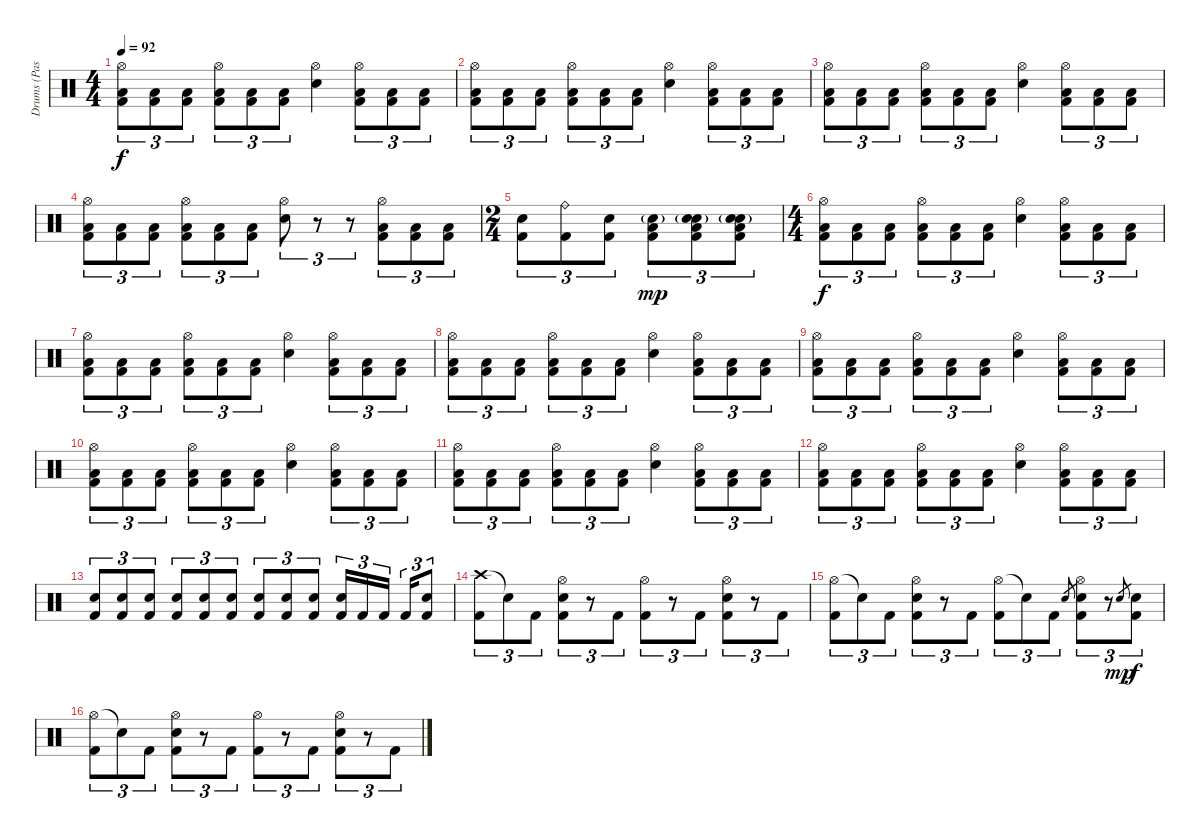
\track ("Drums (Pasanen)" "Drums (Pas") {instrument percussion}
\staff {score}
\articulation defaults
\ts (4 4)
\tempo 92
\clef neutral
\ks c
("Hi-Hat (open)" "Low Tom (hit)" "Kick (hit) 2").8{tu (3 2) dy f} ("Low Tom (hit)" "Kick (hit) 2").8{tu (3 2)} ("Low Tom (hit)" "Kick (hit) 2").8{tu (3 2)} ("Hi-Hat (open)" "Low Tom (hit)" "Kick (hit) 2").8{tu (3 2)} ("Low Tom (hit)" "Kick (hit) 2").8{tu (3 2)} ("Low Tom (hit)" "Kick (hit) 2").8{tu (3 2)} ("Hi-Hat (open)" "Electric Snare (hit)").4 ("Hi-Hat (open)" "Low Tom (hit)" "Kick (hit) 2").8{tu (3 2)} ("Low Tom (hit)" "Kick (hit) 2").8{tu (3 2)} ("Low Tom (hit)" "Kick (hit) 2").8{tu (3 2)} |
("Hi-Hat (open)" "Low Tom (hit)" "Kick (hit) 2").8{tu (3 2)} ("Low Tom (hit)" "Kick (hit) 2").8{tu (3 2)} ("Low Tom (hit)" "Kick (hit) 2").8{tu (3 2)} ("Hi-Hat (open)" "Low Tom (hit)" "Kick (hit) 2").8{tu (3 2)} ("Low Tom (hit)" "Kick (hit) 2").8{tu (3 2)} ("Low Tom (hit)" "Kick (hit) 2").8{tu (3 2)} ("Hi-Hat (open)" "Electric Snare (hit)").4 ("Hi-Hat (open)" "Low Tom (hit)" "Kick (hit) 2").8{tu (3 2)} ("Low Tom (hit)" "Kick (hit) 2").8{tu (3 2)} ("Low Tom (hit)" "Kick (hit) 2").8{tu (3 2)} |
("Hi-Hat (open)" "Low Tom (hit)" "Kick (hit) 2").8{tu (3 2)} ("Low Tom (hit)" "Kick (hit) 2").8{tu (3 2)} ("Low Tom (hit)" "Kick (hit) 2").8{tu (3 2)} ("Hi-Hat (open)" "Low Tom (hit)" "Kick (hit) 2").8{tu (3 2)} ("Low Tom (hit)" "Kick (hit) 2").8{tu (3 2)} ("Low Tom (hit)" "Kick (hit) 2").8{tu (3 2)} ("Hi-Hat (open)" "Electric Snare (hit)").4 ("Hi-Hat (open)" "Low Tom (hit)" "Kick (hit) 2").8{tu (3 2)} ("Low Tom (hit)" "Kick (hit) 2").8{tu (3 2)} ("Low Tom (hit)" "Kick (hit) 2").8{tu (3 2)} |
("Hi-Hat (open)" "Low Tom (hit)" "Kick (hit) 2").8{tu (3 2)} ("Low Tom (hit)" "Kick (hit) 2").8{tu (3 2)} ("Low Tom (hit)" "Kick (hit) 2").8{tu (3 2)} ("Hi-Hat (open)" "Low Tom (hit)" "Kick (hit) 2").8{tu (3 2)} ("Low Tom (hit)" "Kick (hit) 2").8{tu (3 2)} ("Low Tom (hit)" "Kick (hit) 2").8{tu (3 2)} ("Hi-Hat (open)" "Electric Snare (hit)").8{tu (3 2)} r.8{tu (3 2)} r.8{tu (3 2)} ("Hi-Hat (open)" "Low Tom (hit)" "Kick (hit) 2").8{tu (3 2)} ("Low Tom (hit)" "Kick (hit) 2").8{tu (3 2)} ("Low Tom (hit)" "Kick (hit) 2").8{tu (3 2)} |
\ts (2 4)
("Electric Snare (hit)" "Kick (hit) 2").8{tu (3 2)} ("Ride (bell)" "Kick (hit) 2").8{tu (3 2)} ("Electric Snare (hit)" "Kick (hit) 2").8{tu (3 2)} ("Low Tom (hit)" "Electric Snare (hit)"{g} "Kick (hit) 2").8{tu (3 2) dy mp} ("Electric Snare (hit)" "Low Tom (hit)" "Electric Snare (hit)"{g} "Kick (hit) 2").8{tu (3 2)} ("Electric Snare (hit)" "Low Tom (hit)" "Electric Snare (hit)"{g} "Kick (hit) 2").8{tu (3 2)} |
\ts (4 4)
("Hi-Hat (open)" "Low Tom (hit)" "Kick (hit) 2").8{tu (3 2) dy f} ("Low Tom (hit)" "Kick (hit) 2").8{tu (3 2)} ("Low Tom (hit)" "Kick (hit) 2").8{tu (3 2)} ("Hi-Hat (open)" "Low Tom (hit)" "Kick (hit) 2").8{tu (3 2)} ("Low Tom (hit)" "Kick (hit) 2").8{tu (3 2)} ("Low Tom (hit)" "Kick (hit) 2").8{tu (3 2)} ("Hi-Hat (open)" "Electric Snare (hit)").4 ("Hi-Hat (open)" "Low Tom (hit)" "Kick (hit) 2").8{tu (3 2)} ("Low Tom (hit)" "Kick (hit) 2").8{tu (3 2)} ("Low Tom (hit)" "Kick (hit) 2").8{tu (3 2)} |
("Hi-Hat (open)" "Low Tom (hit)" "Kick (hit) 2").8{tu (3 2)} ("Low Tom (hit)" "Kick (hit) 2").8{tu (3 2)} ("Low Tom (hit)" "Kick (hit) 2").8{tu (3 2)} ("Hi-Hat (open)" "Low Tom (hit)" "Kick (hit) 2").8{tu (3 2)} ("Low Tom (hit)" "Kick (hit) 2").8{tu (3 2)} ("Low Tom (hit)" "Kick (hit) 2").8{tu (3 2)} ("Hi-Hat (open)" "Electric Snare (hit)").4 ("Hi-Hat (open)" "Low Tom (hit)" "Kick (hit) 2").8{tu (3 2)} ("Low Tom (hit)" "Kick (hit) 2").8{tu (3 2)} ("Low Tom (hit)" "Kick (hit) 2").8{tu (3 2)} |
("Hi-Hat (open)" "Low Tom (hit)" "Kick (hit) 2").8{tu (3 2)} ("Low Tom (hit)" "Kick (hit) 2").8{tu (3 2)} ("Low Tom (hit)" "Kick (hit) 2").8{tu (3 2)} ("Hi-Hat (open)" "Low Tom (hit)" "Kick (hit) 2").8{tu (3 2)} ("Low Tom (hit)" "Kick (hit) 2").8{tu (3 2)} ("Low Tom (hit)" "Kick (hit) 2").8{tu (3 2)} ("Hi-Hat (open)" "Electric Snare (hit)").4 ("Hi-Hat (open)" "Low Tom (hit)" "Kick (hit) 2").8{tu (3 2)} ("Low Tom (hit)" "Kick (hit) 2").8{tu (3 2)} ("Low Tom (hit)" "Kick (hit) 2").8{tu (3 2)} |
("Hi-Hat (open)" "Low Tom (hit)" "Kick (hit) 2").8{tu (3 2)} ("Low Tom (hit)" "Kick (hit) 2").8{tu (3 2)} ("Low Tom (hit)" "Kick (hit) 2").8{tu (3 2)} ("Hi-Hat (open)" "Low Tom (hit)" "Kick (hit) 2").8{tu (3 2)} ("Low Tom (hit)" "Kick (hit) 2").8{tu (3 2)} ("Low Tom (hit)" "Kick (hit) 2").8{tu (3 2)} ("Hi-Hat (open)" "Electric Snare (hit)").4 ("Hi-Hat (open)" "Low Tom (hit)" "Kick (hit) 2").8{tu (3 2)} ("Low Tom (hit)" "Kick (hit) 2").8{tu (3 2)} ("Low Tom (hit)" "Kick (hit) 2").8{tu (3 2)} |
("Hi-Hat (open)" "Low Tom (hit)" "Kick (hit) 2").8{tu (3 2)} ("Low Tom (hit)" "Kick (hit) 2").8{tu (3 2)} ("Low Tom (hit)" "Kick (hit) 2").8{tu (3 2)} ("Hi-Hat (open)" "Low Tom (hit)" "Kick (hit) 2").8{tu (3 2)} ("Low Tom (hit)" "Kick (hit) 2").8{tu (3 2)} ("Low Tom (hit)" "Kick (hit) 2").8{tu (3 2)} ("Hi-Hat (open)" "Electric Snare (hit)").4 ("Hi-Hat (open)" "Low Tom (hit)" "Kick (hit) 2").8{tu (3 2)} ("Low Tom (hit)" "Kick (hit) 2").8{tu (3 2)} ("Low Tom (hit)" "Kick (hit) 2").8{tu (3 2)} |
("Hi-Hat (open)" "Low Tom (hit)" "Kick (hit) 2").8{tu (3 2)} ("Low Tom (hit)" "Kick (hit) 2").8{tu (3 2)} ("Low Tom (hit)" "Kick (hit) 2").8{tu (3 2)} ("Hi-Hat (open)" "Low Tom (hit)" "Kick (hit) 2").8{tu (3 2)} ("Low Tom (hit)" "Kick (hit) 2").8{tu (3 2)} ("Low Tom (hit)" "Kick (hit) 2").8{tu (3 2)} ("Hi-Hat (open)" "Electric Snare (hit)").4 ("Hi-Hat (open)" "Low Tom (hit)" "Kick (hit) 2").8{tu (3 2)} ("Low Tom (hit)" "Kick (hit) 2").8{tu (3 2)} ("Low Tom (hit)" "Kick (hit) 2").8{tu (3 2)} |
("Hi-Hat (open)" "Low Tom (hit)" "Kick (hit) 2").8{tu (3 2)} ("Low Tom (hit)" "Kick (hit) 2").8{tu (3 2)} ("Low Tom (hit)" "Kick (hit) 2").8{tu (3 2)} ("Hi-Hat (open)" "Low Tom (hit)" "Kick (hit) 2").8{tu (3 2)} ("Low Tom (hit)" "Kick (hit) 2").8{tu (3 2)} ("Low Tom (hit)" "Kick (hit) 2").8{tu (3 2)} ("Hi-Hat (open)" "Electric Snare (hit)").4 ("Hi-Hat (open)" "Low Tom (hit)" "Kick (hit) 2").8{tu (3 2)} ("Low Tom (hit)" "Kick (hit) 2").8{tu (3 2)} ("Low Tom (hit)" "Kick (hit) 2").8{tu (3 2)} |
("Electric Snare (hit)" "Kick (hit) 2").8{tu (3 2)} ("Electric Snare (hit)" "Kick (hit) 2").8{tu (3 2)} ("Electric Snare (hit)" "Kick (hit) 2").8{tu (3 2)} ("Electric Snare (hit)" "Kick (hit) 2").8{tu (3 2)} ("Electric Snare (hit)" "Kick (hit) 2").8{tu (3 2)} ("Electric Snare (hit)" "Kick (hit) 2").8{tu (3 2)} ("Electric Snare (hit)" "Kick (hit) 2").8{tu (3 2)} ("Electric Snare (hit)" "Kick (hit) 2").8{tu (3 2)} ("Electric Snare (hit)" "Kick (hit) 2").8{tu (3 2)} ("Electric Snare (hit)" "Kick (hit) 2").16{tu (3 2)} "Kick (hit) 2".16{tu (3 2)} "Kick (hit) 2".16{tu (3 2) beam splitsecondary} "Kick (hit) 2".16{tu (3 2)} ("Electric Snare (hit)" "Kick (hit) 2").8{tu (3 2)} |
("Crash high (hit)" "Kick (hit) 2").8{tu (3 2)} "Snare (hit)"{t}.8{tu (3 2)} "Kick (hit) 2".8{tu (3 2)} ("Hi-Hat (open)" "Electric Snare (hit)" "Kick (hit) 2").8{tu (3 2)} r.8{tu (3 2)} "Kick (hit) 2".8{tu (3 2)} ("Hi-Hat (open)" "Kick (hit) 2").8{tu (3 2)} r.8{tu (3 2)} "Kick (hit) 2".8{tu (3 2)} ("Hi-Hat (open)" "Electric Snare (hit)" "Kick (hit) 2").8{tu (3 2)} r.8{tu (3 2)} "Kick (hit) 2".8{tu (3 2)} |
("Hi-Hat (open)" "Kick (hit) 2").8{tu (3 2)} "Snare (hit)"{t}.8{tu (3 2)} "Kick (hit) 2".8{tu (3 2)} ("Hi-Hat (open)" "Electric Snare (hit)" "Kick (hit) 2").8{tu (3 2)} r.8{tu (3 2)} "Kick (hit) 2".8{tu (3 2)} ("Hi-Hat (open)" "Kick (hit) 2").8{tu (3 2)} "Snare (hit)"{t}.8{tu (3 2)} "Kick (hit) 2".8{tu (3 2)} "Electric Snare (hit)".8{gr} ("Hi-Hat (open)" "Electric Snare (hit)" "Kick (hit) 2").8{tu (3 2)} r.8{tu (3 2)} "Electric Snare (hit)".8{gr dy mp} ("Electric Snare (hit)" "Kick (hit) 2").8{tu (3 2) dy f} |
("Hi-Hat (open)" "Kick (hit) 2").8{tu (3 2)} "Snare (hit)"{t}.8{tu (3 2)} "Kick (hit) 2".8{tu (3 2)} ("Hi-Hat (open)" "Electric Snare (hit)" "Kick (hit) 2").8{tu (3 2)} r.8{tu (3 2)} "Kick (hit) 2".8{tu (3 2)} ("Hi-Hat (open)" "Kick (hit) 2").8{tu (3 2)} r.8{tu (3 2)} "Kick (hit) 2".8{tu (3 2)} ("Hi-Hat (open)" "Electric Snare (hit)" "Kick (hit) 2").8{tu (3 2)} r.8{tu (3 2)} "Kick (hit) 2".8{tu (3 2)}
